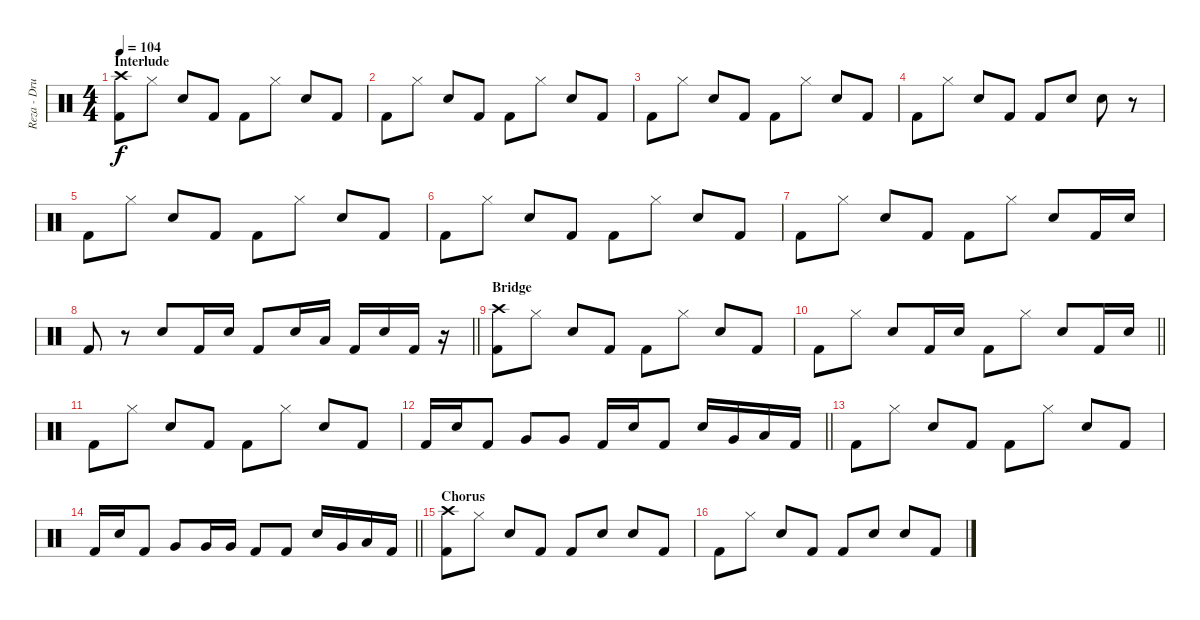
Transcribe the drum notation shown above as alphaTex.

\track ("Reza - Drums" "Reza - Dru") {instrument percussion}
\staff {score}
\articulation defaults
\ts (4 4)
\section ("" "Interlude")
\tempo 104
\clef neutral
\ks c
("Kick (hit) 2" "Crash high (hit)").8{dy f} "Hi-Hat (closed)".8 "Snare (hit) 2".8 "Kick (hit) 2".8 "Kick (hit) 2".8 "Hi-Hat (closed)".8 "Snare (hit) 2".8 "Kick (hit) 2".8 |
"Kick (hit) 2".8 "Hi-Hat (closed)".8 "Snare (hit) 2".8 "Kick (hit) 2".8 "Kick (hit) 2".8 "Hi-Hat (closed)".8 "Snare (hit) 2".8 "Kick (hit) 2".8 |
"Kick (hit) 2".8 "Hi-Hat (closed)".8 "Snare (hit) 2".8 "Kick (hit) 2".8 "Kick (hit) 2".8 "Hi-Hat (closed)".8 "Snare (hit) 2".8 "Kick (hit) 2".8 |
"Kick (hit) 2".8 "Hi-Hat (closed)".8 "Snare (hit) 2".8 "Kick (hit) 2".8 "Kick (hit) 2".8 "Snare (hit) 2".8 "Snare (hit) 2".8 r.8 |
"Kick (hit) 2".8 "Hi-Hat (closed)".8 "Snare (hit) 2".8 "Kick (hit) 2".8 "Kick (hit) 2".8 "Hi-Hat (closed)".8 "Snare (hit) 2".8 "Kick (hit) 2".8 |
"Kick (hit) 2".8 "Hi-Hat (closed)".8 "Snare (hit) 2".8 "Kick (hit) 2".8 "Kick (hit) 2".8 "Hi-Hat (closed)".8 "Snare (hit) 2".8 "Kick (hit) 2".8 |
"Kick (hit) 2".8 "Hi-Hat (closed)".8 "Snare (hit) 2".8 "Kick (hit) 2".8 "Kick (hit) 2".8 "Hi-Hat (closed)".8 "Snare (hit) 2".8 "Kick (hit) 2".16 "Snare (hit) 2".16 |
\barLineRight lightlight "Kick (hit) 2".8
r.8 "Snare (hit) 2".8 "Kick (hit) 2".16 "Snare (hit) 2".16 "Kick (hit) 2".8 "Snare (hit) 2".16 "Low Floor Tom (hit)".16 "Kick (hit) 2".16 "Snare (hit) 2".16 "Kick (hit) 2".16 r.16 |
\section ("" "Bridge")
("Kick (hit) 2" "Crash high (hit)").8 "Hi-Hat (closed)".8 "Snare (hit) 2".8 "Kick (hit) 2".8 "Kick (hit) 2".8 "Hi-Hat (closed)".8 "Snare (hit) 2".8 "Kick (hit) 2".8 |
\barLineRight lightlight "Kick (hit) 2".8 "Hi-Hat (closed)".8 "Snare (hit) 2".8 "Kick (hit) 2".16 "Snare (hit) 2".16 "Kick (hit) 2".8 "Hi-Hat (closed)".8 "Snare (hit) 2".8 "Kick (hit) 2".16 "Snare (hit) 2".16
|
"Kick (hit) 2".8 "Hi-Hat (closed)".8 "Snare (hit) 2".8 "Kick (hit) 2".8 "Kick (hit) 2".8 "Hi-Hat (closed)".8 "Snare (hit) 2".8 "Kick (hit) 2".8 |
\barLineRight lightlight "Kick (hit) 2".16 "Snare (hit) 2".16 "Kick (hit) 2".8 "Very Low Tom (hit)".8 "Very Low Tom (hit)".8 "Kick (hit) 2".16 "Snare (hit) 2".16 "Kick (hit) 2".8 "Snare (hit) 2".16 "Very Low Tom (hit)".16 "Low Floor Tom (hit)".16 "Kick (hit) 2".16
|
"Kick (hit) 2".8 "Hi-Hat (closed)".8 "Snare (hit) 2".8 "Kick (hit) 2".8 "Kick (hit) 2".8 "Hi-Hat (closed)".8 "Snare (hit) 2".8 "Kick (hit) 2".8 |
\barLineRight lightlight "Kick (hit) 2".16 "Snare (hit) 2".16 "Kick (hit) 2".8 "Very Low Tom (hit)".8 "Very Low Tom (hit)".16 "Very Low Tom (hit)".16 "Kick (hit) 2".8 "Kick (hit) 2".8 "Snare (hit) 2".16 "Very Low Tom (hit)".16 "Low Floor Tom (hit)".16 "Kick (hit) 2".16
|
\section ("" "Chorus")
("Kick (hit) 2" "Crash high (hit)").8 "Hi-Hat (closed)".8 "Snare (hit) 2".8 "Kick (hit) 2".8 "Kick (hit) 2".8 "Snare (hit) 2".8 "Snare (hit) 2".8 "Kick (hit) 2".8 |
"Kick (hit) 2".8 "Hi-Hat (closed)".8 "Snare (hit) 2".8 "Kick (hit) 2".8 "Kick (hit) 2".8 "Snare (hit) 2".8 "Snare (hit) 2".8 "Kick (hit) 2".8
